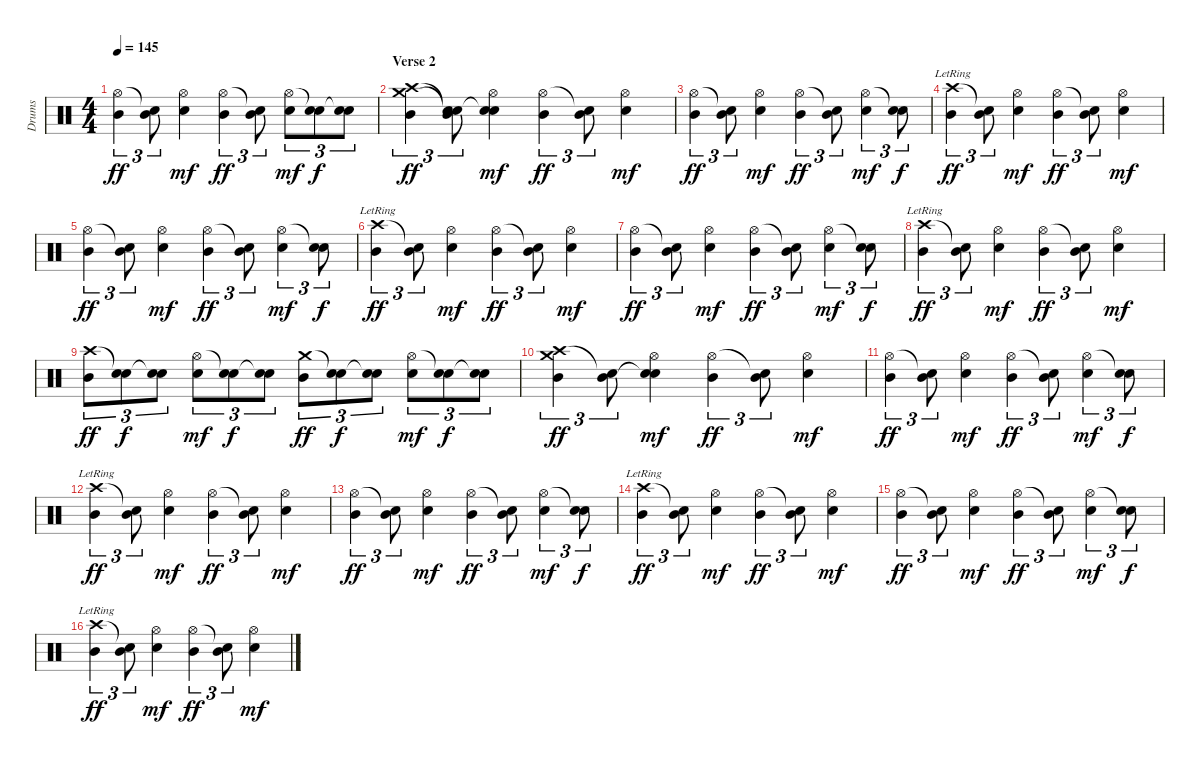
\track ("Drums" "Drums") {instrument percussion}
\staff {score}
\articulation defaults
\ts (4 4)
\tempo 145
\clef neutral
\ks c
("Hi-Hat (open)" "Mid Tom (hit)").4{tu (3 2) dy ff} ("Snare (hit)"{t} "Mid Tom (hit)").8{tu (3 2)} ("Hi-Hat (open)" "Electric Snare (hit)").4{dy mf} ("Hi-Hat (open)" "Mid Tom (hit)").4{tu (3 2) dy ff} ("Snare (hit)"{t} "Mid Tom (hit)").8{tu (3 2)} ("Hi-Hat (open)" "Electric Snare (hit)").8{tu (3 2) dy mf} ("Snare (hit)"{t} "Electric Snare (hit)").8{tu (3 2) dy f} ("Snare (hit)"{t} "Electric Snare (hit)").8{tu (3 2)} |
\section ("" "Verse 2")
("Crash high (hit)" "Crash medium (hit)" "Mid Tom (hit)").4{tu (3 2) dy ff} ("Snare (hit)"{t} "Snare (hit)"{t} "Mid Tom (hit)").8{tu (3 2)} ("Hi-Hat (open)" "Snare (hit)"{t} "Electric Snare (hit)").4{dy mf} ("Hi-Hat (open)" "Mid Tom (hit)").4{tu (3 2) dy ff} ("Snare (hit)"{t} "Mid Tom (hit)").8{tu (3 2)} ("Hi-Hat (open)" "Electric Snare (hit)").4{dy mf} |
("Hi-Hat (open)" "Mid Tom (hit)").4{tu (3 2) dy ff} ("Snare (hit)"{t} "Mid Tom (hit)").8{tu (3 2)} ("Hi-Hat (open)" "Electric Snare (hit)").4{dy mf} ("Hi-Hat (open)" "Mid Tom (hit)").4{tu (3 2) dy ff} ("Snare (hit)"{t} "Mid Tom (hit)").8{tu (3 2)} ("Hi-Hat (open)" "Electric Snare (hit)").4{tu (3 2) dy mf} ("Snare (hit)"{t} "Electric Snare (hit)").8{tu (3 2) dy f} |
("Crash high (hit)"{lr} "Mid Tom (hit)").4{tu (3 2) dy ff} ("Snare (hit)"{t} "Mid Tom (hit)").8{tu (3 2)} ("Hi-Hat (open)" "Electric Snare (hit)").4{dy mf} ("Hi-Hat (open)" "Mid Tom (hit)").4{tu (3 2) dy ff} ("Snare (hit)"{t} "Mid Tom (hit)").8{tu (3 2)} ("Hi-Hat (open)" "Electric Snare (hit)").4{dy mf} |
("Hi-Hat (open)" "Mid Tom (hit)").4{tu (3 2) dy ff} ("Snare (hit)"{t} "Mid Tom (hit)").8{tu (3 2)} ("Hi-Hat (open)" "Electric Snare (hit)").4{dy mf} ("Hi-Hat (open)" "Mid Tom (hit)").4{tu (3 2) dy ff} ("Snare (hit)"{t} "Mid Tom (hit)").8{tu (3 2)} ("Hi-Hat (open)" "Electric Snare (hit)").4{tu (3 2) dy mf} ("Snare (hit)"{t} "Electric Snare (hit)").8{tu (3 2) dy f} |
("Crash high (hit)"{lr} "Mid Tom (hit)").4{tu (3 2) dy ff} ("Snare (hit)"{t} "Mid Tom (hit)").8{tu (3 2)} ("Hi-Hat (open)" "Electric Snare (hit)").4{dy mf} ("Hi-Hat (open)" "Mid Tom (hit)").4{tu (3 2) dy ff} ("Snare (hit)"{t} "Mid Tom (hit)").8{tu (3 2)} ("Hi-Hat (open)" "Electric Snare (hit)").4{dy mf} |
("Hi-Hat (open)" "Mid Tom (hit)").4{tu (3 2) dy ff} ("Snare (hit)"{t} "Mid Tom (hit)").8{tu (3 2)} ("Hi-Hat (open)" "Electric Snare (hit)").4{dy mf} ("Hi-Hat (open)" "Mid Tom (hit)").4{tu (3 2) dy ff} ("Snare (hit)"{t} "Mid Tom (hit)").8{tu (3 2)} ("Hi-Hat (open)" "Electric Snare (hit)").4{tu (3 2) dy mf} ("Snare (hit)"{t} "Electric Snare (hit)").8{tu (3 2) dy f} |
("Crash high (hit)"{lr} "Mid Tom (hit)").4{tu (3 2) dy ff} ("Snare (hit)"{t} "Mid Tom (hit)").8{tu (3 2)} ("Hi-Hat (open)" "Electric Snare (hit)").4{dy mf} ("Hi-Hat (open)" "Mid Tom (hit)").4{tu (3 2) dy ff} ("Snare (hit)"{t} "Mid Tom (hit)").8{tu (3 2)} ("Hi-Hat (open)" "Electric Snare (hit)").4{dy mf} |
("Crash high (hit)" "Mid Tom (hit)").8{tu (3 2) dy ff} ("Snare (hit)"{t} "Electric Snare (hit)").8{tu (3 2) dy f} ("Snare (hit)"{t} "Electric Snare (hit)").8{tu (3 2)} ("Hi-Hat (open)" "Electric Snare (hit)").8{tu (3 2) dy mf} ("Snare (hit)"{t} "Electric Snare (hit)").8{tu (3 2) dy f} ("Snare (hit)"{t} "Electric Snare (hit)").8{tu (3 2)} ("Crash medium (hit)" "Mid Tom (hit)").8{tu (3 2) dy ff} ("Snare (hit)"{t} "Electric Snare (hit)").8{tu (3 2) dy f} ("Snare (hit)"{t} "Electric Snare (hit)").8{tu (3 2)} ("Hi-Hat (open)" "Electric Snare (hit)").8{tu (3 2) dy mf} ("Snare (hit)"{t} "Electric Snare (hit)").8{tu (3 2) dy f} ("Snare (hit)"{t} "Electric Snare (hit)").8{tu (3 2)} |
("Crash high (hit)" "Crash medium (hit)" "Mid Tom (hit)").4{tu (3 2) dy ff} ("Snare (hit)"{t} "Mid Tom (hit)").8{tu (3 2)} ("Hi-Hat (open)" "Snare (hit)"{t} "Electric Snare (hit)").4{dy mf} ("Hi-Hat (open)" "Mid Tom (hit)").4{tu (3 2) dy ff} ("Snare (hit)"{t} "Mid Tom (hit)").8{tu (3 2)} ("Hi-Hat (open)" "Electric Snare (hit)").4{dy mf} |
("Hi-Hat (open)" "Mid Tom (hit)").4{tu (3 2) dy ff} ("Snare (hit)"{t} "Mid Tom (hit)").8{tu (3 2)} ("Hi-Hat (open)" "Electric Snare (hit)").4{dy mf} ("Hi-Hat (open)" "Mid Tom (hit)").4{tu (3 2) dy ff} ("Snare (hit)"{t} "Mid Tom (hit)").8{tu (3 2)} ("Hi-Hat (open)" "Electric Snare (hit)").4{tu (3 2) dy mf} ("Snare (hit)"{t} "Electric Snare (hit)").8{tu (3 2) dy f} |
("Crash high (hit)"{lr} "Mid Tom (hit)").4{tu (3 2) dy ff} ("Snare (hit)"{t} "Mid Tom (hit)").8{tu (3 2)} ("Hi-Hat (open)" "Electric Snare (hit)").4{dy mf} ("Hi-Hat (open)" "Mid Tom (hit)").4{tu (3 2) dy ff} ("Snare (hit)"{t} "Mid Tom (hit)").8{tu (3 2)} ("Hi-Hat (open)" "Electric Snare (hit)").4{dy mf} |
("Hi-Hat (open)" "Mid Tom (hit)").4{tu (3 2) dy ff} ("Snare (hit)"{t} "Mid Tom (hit)").8{tu (3 2)} ("Hi-Hat (open)" "Electric Snare (hit)").4{dy mf} ("Hi-Hat (open)" "Mid Tom (hit)").4{tu (3 2) dy ff} ("Snare (hit)"{t} "Mid Tom (hit)").8{tu (3 2)} ("Hi-Hat (open)" "Electric Snare (hit)").4{tu (3 2) dy mf} ("Snare (hit)"{t} "Electric Snare (hit)").8{tu (3 2) dy f} |
("Crash high (hit)"{lr} "Mid Tom (hit)").4{tu (3 2) dy ff} ("Snare (hit)"{t} "Mid Tom (hit)").8{tu (3 2)} ("Hi-Hat (open)" "Electric Snare (hit)").4{dy mf} ("Hi-Hat (open)" "Mid Tom (hit)").4{tu (3 2) dy ff} ("Snare (hit)"{t} "Mid Tom (hit)").8{tu (3 2)} ("Hi-Hat (open)" "Electric Snare (hit)").4{dy mf} |
("Hi-Hat (open)" "Mid Tom (hit)").4{tu (3 2) dy ff} ("Snare (hit)"{t} "Mid Tom (hit)").8{tu (3 2)} ("Hi-Hat (open)" "Electric Snare (hit)").4{dy mf} ("Hi-Hat (open)" "Mid Tom (hit)").4{tu (3 2) dy ff} ("Snare (hit)"{t} "Mid Tom (hit)").8{tu (3 2)} ("Hi-Hat (open)" "Electric Snare (hit)").4{tu (3 2) dy mf} ("Snare (hit)"{t} "Electric Snare (hit)").8{tu (3 2) dy f} |
("Crash high (hit)"{lr} "Mid Tom (hit)").4{tu (3 2) dy ff} ("Snare (hit)"{t} "Mid Tom (hit)").8{tu (3 2)} ("Hi-Hat (open)" "Electric Snare (hit)").4{dy mf} ("Hi-Hat (open)" "Mid Tom (hit)").4{tu (3 2) dy ff} ("Snare (hit)"{t} "Mid Tom (hit)").8{tu (3 2)} ("Hi-Hat (open)" "Electric Snare (hit)").4{dy mf}
